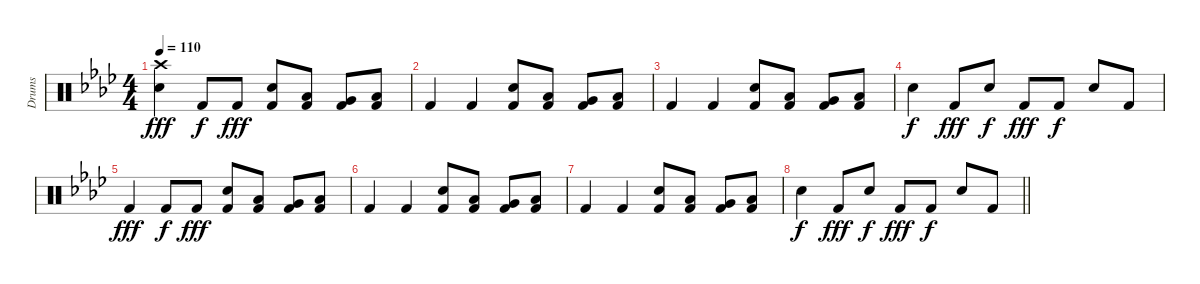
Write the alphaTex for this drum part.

\track ("Drums" "Drums") {instrument percussion}
\staff {score}
\articulation defaults
\ts (4 4)
\tempo 110
\clef neutral
\ks fminor
("Crash high (hit)" "Electric Snare (hit)").4{dy fff} "Kick (hit) 2".8{dy f} "Kick (hit) 2".8{dy fff} ("Electric Snare (hit)" "Kick (hit) 2").8 ("Low Tom (hit)" "Kick (hit) 2").8 ("Very Low Tom (hit)" "Kick (hit) 2").8 ("Low Tom (hit)" "Kick (hit) 2").8 |
"Kick (hit) 2".4 "Kick (hit) 2".4 ("Electric Snare (hit)" "Kick (hit) 2").8 ("Low Tom (hit)" "Kick (hit) 2").8 ("Very Low Tom (hit)" "Kick (hit) 2").8 ("Low Tom (hit)" "Kick (hit) 2").8 |
"Kick (hit) 2".4{volume 0} "Kick (hit) 2".4 ("Electric Snare (hit)" "Kick (hit) 2").8 ("Low Tom (hit)" "Kick (hit) 2").8 ("Very Low Tom (hit)" "Kick (hit) 2").8 ("Low Tom (hit)" "Kick (hit) 2").8 |
"Electric Snare (hit)".4{dy f} "Kick (hit) 2".8{dy fff} "Electric Snare (hit)".8{dy f} "Kick (hit) 2".8{dy fff} "Kick (hit) 2".8{dy f} "Electric Snare (hit)".8 "Kick (hit) 2".8 |
"Kick (hit) 2".4{dy fff} "Kick (hit) 2".8{dy f} "Kick (hit) 2".8{dy fff} ("Electric Snare (hit)" "Kick (hit) 2").8 ("Low Tom (hit)" "Kick (hit) 2").8 ("Very Low Tom (hit)" "Kick (hit) 2").8 ("Low Tom (hit)" "Kick (hit) 2").8 |
"Kick (hit) 2".4 "Kick (hit) 2".4 ("Electric Snare (hit)" "Kick (hit) 2").8 ("Low Tom (hit)" "Kick (hit) 2").8 ("Very Low Tom (hit)" "Kick (hit) 2").8 ("Low Tom (hit)" "Kick (hit) 2").8 |
"Kick (hit) 2".4 "Kick (hit) 2".4 ("Electric Snare (hit)" "Kick (hit) 2").8 ("Low Tom (hit)" "Kick (hit) 2").8 ("Very Low Tom (hit)" "Kick (hit) 2").8 ("Low Tom (hit)" "Kick (hit) 2").8 |
\barLineRight lightlight "Electric Snare (hit)".4{dy f} "Kick (hit) 2".8{dy fff} "Electric Snare (hit)".8{dy f} "Kick (hit) 2".8{dy fff} "Kick (hit) 2".8{dy f} "Electric Snare (hit)".8 "Kick (hit) 2".8
